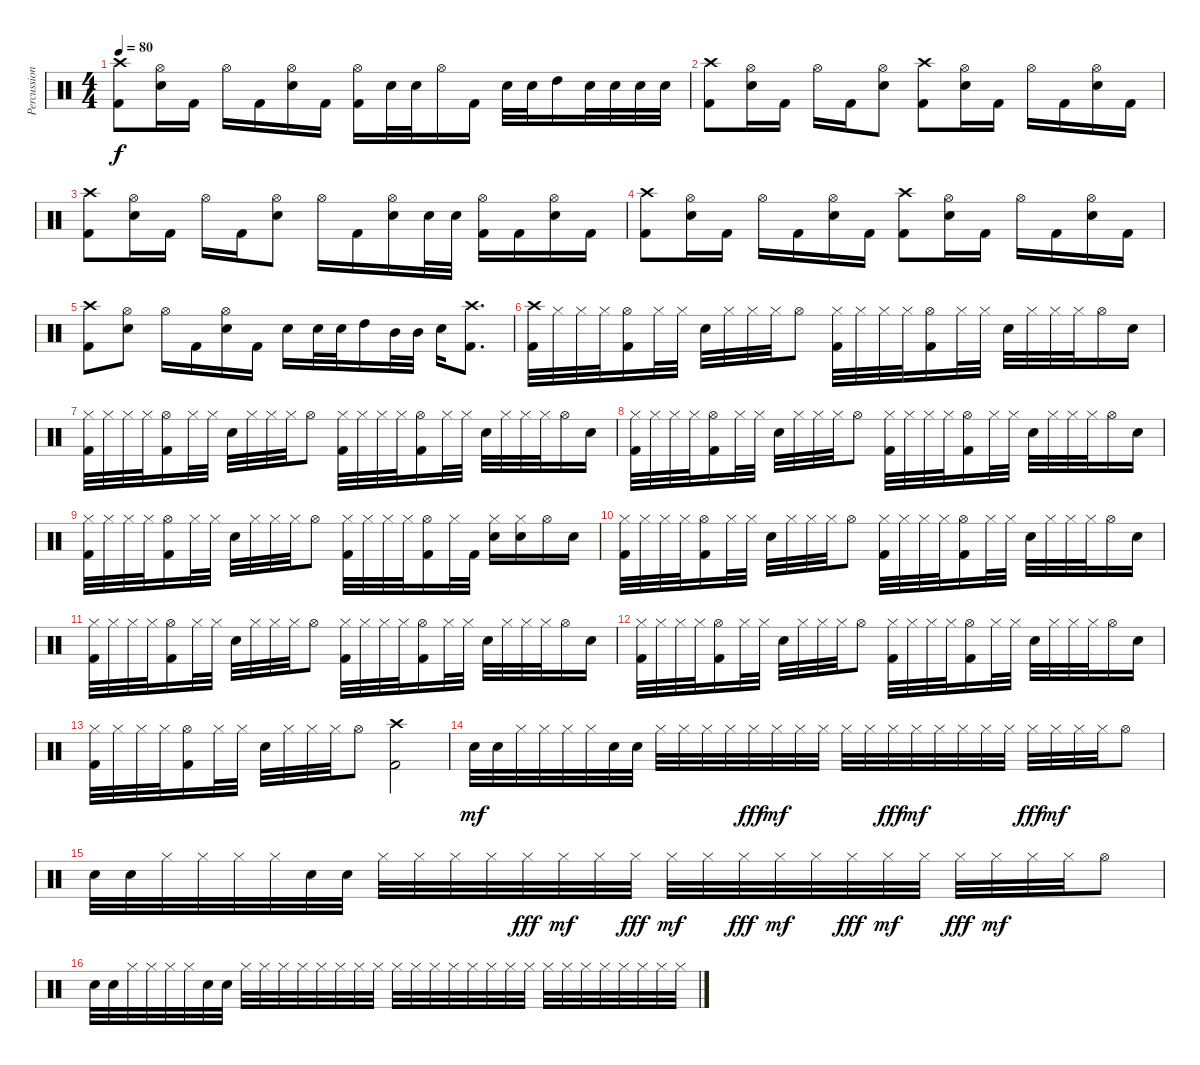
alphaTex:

\track ("Percussion" "Percussion") {instrument percussion}
\staff {score}
\articulation defaults
\ts (4 4)
\tempo 80
\clef neutral
\ks c
("Crash high (hit)" "Kick (hit) 2").8{dy f} ("Hi-Hat (open)" "Snare (hit) 2").16 "Kick (hit) 2".16 "Hi-Hat (open)".16 "Kick (hit) 2".16 ("Hi-Hat (open)" "Snare (hit) 2").16 "Kick (hit) 2".16 ("Hi-Hat (open)" "Kick (hit) 2").16 "Snare (hit) 2".32 "Snare (hit) 2".32 "Hi-Hat (open)".16 "Kick (hit) 2".16 "Snare (hit) 2".32 "Snare (hit) 2".32 "High Tom (hit)".16 "Snare (hit) 2".32 "Snare (hit) 2".32 "Snare (hit) 2".32 "Snare (hit) 2".32 |
("Crash high (hit)" "Kick (hit) 2").8 ("Hi-Hat (open)" "Snare (hit) 2").16 "Kick (hit) 2".16 "Hi-Hat (open)".16 "Kick (hit) 2".16 ("Hi-Hat (open)" "Snare (hit) 2").8 ("Crash high (hit)" "Kick (hit) 2").8 ("Hi-Hat (open)" "Snare (hit) 2").16 "Kick (hit) 2".16 "Hi-Hat (open)".16 "Kick (hit) 2".16 ("Hi-Hat (open)" "Snare (hit) 2").16 "Kick (hit) 2".16 |
("Crash high (hit)" "Kick (hit) 2").8 ("Hi-Hat (open)" "Snare (hit) 2").16 "Kick (hit) 2".16 "Hi-Hat (open)".16 "Kick (hit) 2".16 ("Hi-Hat (open)" "Snare (hit) 2").8 "Hi-Hat (open)".16 "Kick (hit) 2".16 ("Hi-Hat (open)" "Snare (hit) 2").16 "Snare (hit) 2".32 "Snare (hit) 2".32 ("Hi-Hat (open)" "Kick (hit) 2").16 "Kick (hit) 2".16 ("Hi-Hat (open)" "Snare (hit) 2").16 "Kick (hit) 2".16 |
("Crash high (hit)" "Kick (hit) 2").8 ("Hi-Hat (open)" "Snare (hit) 2").16 "Kick (hit) 2".16 "Hi-Hat (open)".16 "Kick (hit) 2".16 ("Hi-Hat (open)" "Snare (hit) 2").16 "Kick (hit) 2".16 ("Crash high (hit)" "Kick (hit) 2").8 ("Hi-Hat (open)" "Snare (hit) 2").16 "Kick (hit) 2".16 "Hi-Hat (open)".16 "Kick (hit) 2".16 ("Hi-Hat (open)" "Snare (hit) 2").16 "Kick (hit) 2".16 |
("Crash high (hit)" "Kick (hit) 2").8 ("Hi-Hat (open)" "Snare (hit) 2").8 "Hi-Hat (open)".16 "Kick (hit) 2".16 ("Hi-Hat (open)" "Snare (hit) 2").16 "Kick (hit) 2".16 "Snare (hit) 2".16 "Snare (hit) 2".32 "Snare (hit) 2".32 "High Tom (hit)".16 "Mid Tom (hit)".32 "Mid Tom (hit)".32 "Snare (hit) 2".16 ("Crash high (hit)" "Kick (hit) 2").8{d} |
("Crash high (hit)" "Kick (hit) 2").32 "Hi-Hat (closed)".32 "Hi-Hat (closed)".32 "Hi-Hat (closed)".32 ("Hi-Hat (open)" "Kick (hit) 2").16 "Hi-Hat (closed)".32 "Hi-Hat (closed)".32 "Snare (hit) 2".32 "Hi-Hat (closed)".32 "Hi-Hat (closed)".32 "Hi-Hat (closed)".32 "Hi-Hat (open)".8 ("Hi-Hat (closed)" "Kick (hit) 2").32 "Hi-Hat (closed)".32 "Hi-Hat (closed)".32 "Hi-Hat (closed)".32 ("Hi-Hat (open)" "Kick (hit) 2").16 "Hi-Hat (closed)".32 "Hi-Hat (closed)".32 "Snare (hit) 2".32 "Hi-Hat (closed)".32 "Hi-Hat (closed)".32 "Hi-Hat (closed)".32 "Hi-Hat (open)".16 "Snare (hit) 2".16 |
("Hi-Hat (closed)" "Kick (hit) 2").32 "Hi-Hat (closed)".32 "Hi-Hat (closed)".32 "Hi-Hat (closed)".32 ("Hi-Hat (open)" "Kick (hit) 2").16 "Hi-Hat (closed)".32 "Hi-Hat (closed)".32 "Snare (hit) 2".32 "Hi-Hat (closed)".32 "Hi-Hat (closed)".32 "Hi-Hat (closed)".32 "Hi-Hat (open)".8 ("Hi-Hat (closed)" "Kick (hit) 2").32 "Hi-Hat (closed)".32 "Hi-Hat (closed)".32 "Hi-Hat (closed)".32 ("Hi-Hat (open)" "Kick (hit) 2").16 "Hi-Hat (closed)".32 "Hi-Hat (closed)".32 "Snare (hit) 2".32 "Hi-Hat (closed)".32 "Hi-Hat (closed)".32 "Hi-Hat (closed)".32 "Hi-Hat (open)".16 "Snare (hit) 2".16 |
("Hi-Hat (closed)" "Kick (hit) 2").32 "Hi-Hat (closed)".32 "Hi-Hat (closed)".32 "Hi-Hat (closed)".32 ("Hi-Hat (open)" "Kick (hit) 2").16 "Hi-Hat (closed)".32 "Hi-Hat (closed)".32 "Snare (hit) 2".32 "Hi-Hat (closed)".32 "Hi-Hat (closed)".32 "Hi-Hat (closed)".32 "Hi-Hat (open)".8 ("Hi-Hat (closed)" "Kick (hit) 2").32 "Hi-Hat (closed)".32 "Hi-Hat (closed)".32 "Hi-Hat (closed)".32 ("Hi-Hat (open)" "Kick (hit) 2").16 "Hi-Hat (closed)".32 "Hi-Hat (closed)".32 "Snare (hit) 2".32 "Hi-Hat (closed)".32 "Hi-Hat (closed)".32 "Hi-Hat (closed)".32 "Hi-Hat (open)".16 "Snare (hit) 2".16 |
("Hi-Hat (closed)" "Kick (hit) 2").32 "Hi-Hat (closed)".32 "Hi-Hat (closed)".32 "Hi-Hat (closed)".32 ("Hi-Hat (open)" "Kick (hit) 2").16 "Hi-Hat (closed)".32 "Hi-Hat (closed)".32 "Snare (hit) 2".32 "Hi-Hat (closed)".32 "Hi-Hat (closed)".32 "Hi-Hat (closed)".32 "Hi-Hat (open)".8 ("Hi-Hat (closed)" "Kick (hit) 2").32 "Hi-Hat (closed)".32 "Hi-Hat (closed)".32 "Hi-Hat (closed)".32 ("Hi-Hat (open)" "Kick (hit) 2").16 "Hi-Hat (closed)".32 "Kick (hit) 2".32 ("Hi-Hat (closed)" "Snare (hit) 2").16 ("Hi-Hat (closed)" "Snare (hit) 2").16 "Hi-Hat (open)".16 "Snare (hit) 2".16 |
("Hi-Hat (closed)" "Kick (hit) 2").32 "Hi-Hat (closed)".32 "Hi-Hat (closed)".32 "Hi-Hat (closed)".32 ("Hi-Hat (open)" "Kick (hit) 2").16 "Hi-Hat (closed)".32 "Hi-Hat (closed)".32 "Snare (hit) 2".32 "Hi-Hat (closed)".32 "Hi-Hat (closed)".32 "Hi-Hat (closed)".32 "Hi-Hat (open)".8 ("Hi-Hat (closed)" "Kick (hit) 2").32 "Hi-Hat (closed)".32 "Hi-Hat (closed)".32 "Hi-Hat (closed)".32 ("Hi-Hat (open)" "Kick (hit) 2").16 "Hi-Hat (closed)".32 "Hi-Hat (closed)".32 "Snare (hit) 2".32 "Hi-Hat (closed)".32 "Hi-Hat (closed)".32 "Hi-Hat (closed)".32 "Hi-Hat (open)".16 "Snare (hit) 2".16 |
("Hi-Hat (closed)" "Kick (hit) 2").32 "Hi-Hat (closed)".32 "Hi-Hat (closed)".32 "Hi-Hat (closed)".32 ("Hi-Hat (open)" "Kick (hit) 2").16 "Hi-Hat (closed)".32 "Hi-Hat (closed)".32 "Snare (hit) 2".32 "Hi-Hat (closed)".32 "Hi-Hat (closed)".32 "Hi-Hat (closed)".32 "Hi-Hat (open)".8 ("Hi-Hat (closed)" "Kick (hit) 2").32 "Hi-Hat (closed)".32 "Hi-Hat (closed)".32 "Hi-Hat (closed)".32 ("Hi-Hat (open)" "Kick (hit) 2").16 "Hi-Hat (closed)".32 "Hi-Hat (closed)".32 "Snare (hit) 2".32 "Hi-Hat (closed)".32 "Hi-Hat (closed)".32 "Hi-Hat (closed)".32 "Hi-Hat (open)".16 "Snare (hit) 2".16 |
("Hi-Hat (closed)" "Kick (hit) 2").32 "Hi-Hat (closed)".32 "Hi-Hat (closed)".32 "Hi-Hat (closed)".32 ("Hi-Hat (open)" "Kick (hit) 2").16 "Hi-Hat (closed)".32 "Hi-Hat (closed)".32 "Snare (hit) 2".32 "Hi-Hat (closed)".32 "Hi-Hat (closed)".32 "Hi-Hat (closed)".32 "Hi-Hat (open)".8 ("Hi-Hat (closed)" "Kick (hit) 2").32 "Hi-Hat (closed)".32 "Hi-Hat (closed)".32 "Hi-Hat (closed)".32 ("Hi-Hat (open)" "Kick (hit) 2").16 "Hi-Hat (closed)".32 "Hi-Hat (closed)".32 "Snare (hit) 2".32 "Hi-Hat (closed)".32 "Hi-Hat (closed)".32 "Hi-Hat (closed)".32 "Hi-Hat (open)".16 "Snare (hit) 2".16 |
("Hi-Hat (closed)" "Kick (hit) 2").32 "Hi-Hat (closed)".32 "Hi-Hat (closed)".32 "Hi-Hat (closed)".32 ("Hi-Hat (open)" "Kick (hit) 2").16 "Hi-Hat (closed)".32 "Hi-Hat (closed)".32 "Snare (hit) 2".32 "Hi-Hat (closed)".32 "Hi-Hat (closed)".32 "Hi-Hat (closed)".32 "Hi-Hat (open)".8 ("Crash high (hit)" "Kick (hit) 2").2 |
"Snare (hit) 2".32{dy mf} "Snare (hit) 2".32 "Hi-Hat (closed)".32 "Hi-Hat (closed)".32 "Hi-Hat (closed)".32 "Hi-Hat (closed)".32 "Snare (hit) 2".32 "Snare (hit) 2".32 "Hi-Hat (closed)".32 "Hi-Hat (closed)".32 "Hi-Hat (closed)".32 "Hi-Hat (closed)".32 "Hi-Hat (closed)".32{dy fff} "Hi-Hat (closed)".32{dy mf} "Hi-Hat (closed)".32 "Hi-Hat (closed)".32 "Hi-Hat (closed)".32 "Hi-Hat (closed)".32 "Hi-Hat (closed)".32{dy fff} "Hi-Hat (closed)".32{dy mf} "Hi-Hat (closed)".32 "Hi-Hat (closed)".32 "Hi-Hat (closed)".32 "Hi-Hat (closed)".32 "Hi-Hat (closed)".32{dy fff} "Hi-Hat (closed)".32{dy mf} "Hi-Hat (closed)".32 "Hi-Hat (closed)".32 "Hi-Hat (open)".8 |
"Snare (hit) 2".32 "Snare (hit) 2".32 "Hi-Hat (closed)".32 "Hi-Hat (closed)".32 "Hi-Hat (closed)".32 "Hi-Hat (closed)".32 "Snare (hit) 2".32 "Snare (hit) 2".32 "Hi-Hat (closed)".32 "Hi-Hat (closed)".32 "Hi-Hat (closed)".32 "Hi-Hat (closed)".32 "Hi-Hat (closed)".32{dy fff} "Hi-Hat (closed)".32{dy mf} "Hi-Hat (closed)".32 "Hi-Hat (closed)".32{dy fff} "Hi-Hat (closed)".32{dy mf} "Hi-Hat (closed)".32 "Hi-Hat (closed)".32{dy fff} "Hi-Hat (closed)".32{dy mf} "Hi-Hat (closed)".32 "Hi-Hat (closed)".32{dy fff} "Hi-Hat (closed)".32{dy mf} "Hi-Hat (closed)".32 "Hi-Hat (closed)".32{dy fff} "Hi-Hat (closed)".32{dy mf} "Hi-Hat (closed)".32 "Hi-Hat (closed)".32 "Hi-Hat (open)".8 |
"Snare (hit) 2".32 "Snare (hit) 2".32 "Hi-Hat (closed)".32 "Hi-Hat (closed)".32 "Hi-Hat (closed)".32 "Hi-Hat (closed)".32 "Snare (hit) 2".32 "Snare (hit) 2".32 "Hi-Hat (closed)".32 "Hi-Hat (closed)".32 "Hi-Hat (closed)".32 "Hi-Hat (closed)".32 "Hi-Hat (closed)".32 "Hi-Hat (closed)".32 "Hi-Hat (closed)".32 "Hi-Hat (closed)".32 "Hi-Hat (closed)".32 "Hi-Hat (closed)".32 "Hi-Hat (closed)".32 "Hi-Hat (closed)".32 "Hi-Hat (closed)".32 "Hi-Hat (closed)".32 "Hi-Hat (closed)".32 "Hi-Hat (closed)".32 "Hi-Hat (closed)".32 "Hi-Hat (closed)".32 "Hi-Hat (closed)".32 "Hi-Hat (closed)".32 "Hi-Hat (closed)".32 "Hi-Hat (closed)".32 "Hi-Hat (closed)".32 "Hi-Hat (closed)".32
